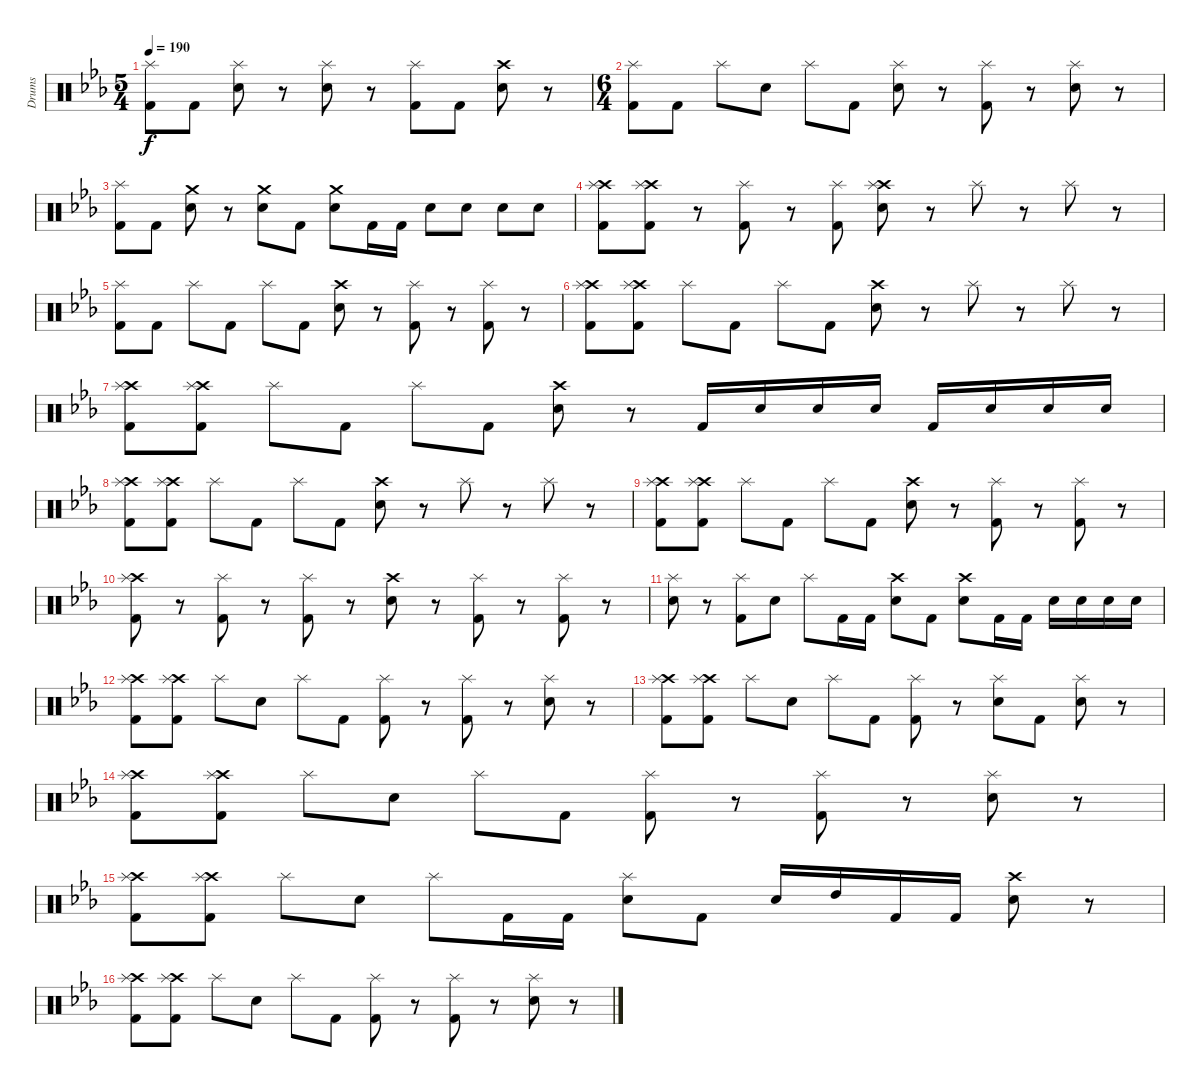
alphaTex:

\track ("Drums" "Drums") {instrument percussion}
\staff {score}
\articulation defaults
\ts (5 4)
\tempo 190
\clef neutral
\ks eb
("Kick (hit) 2" "Splash (hit)").8{dy f} "Kick (hit) 2".8 ("Electric Snare (hit)" "Splash (hit)").8 r.8 ("Electric Snare (hit)" "Splash (hit)").8 r.8 ("Kick (hit) 2" "Splash (hit)").8 "Kick (hit) 2".8 ("Electric Snare (hit)" "Crash high (hit)").8 r.8 |
\ts (6 4)
("Kick (hit) 2" "Splash (hit)").8 "Kick (hit) 2".8 "Splash (hit)".8 "Electric Snare (hit)".8 "Splash (hit)".8 "Kick (hit) 2".8 ("Electric Snare (hit)" "Splash (hit)").8 r.8 ("Kick (hit) 2" "Splash (hit)").8 r.8 ("Electric Snare (hit)" "Splash (hit)").8 r.8 |
("Kick (hit) 2" "Splash (hit)").8 "Kick (hit) 2".8 ("Electric Snare (hit)" "Crash medium (hit)").8 r.8 ("Electric Snare (hit)" "Crash medium (hit)").8 "Kick (hit) 2".8 ("Electric Snare (hit)" "Crash medium (hit)").8 "Kick (hit) 2".16 "Kick (hit) 2".16 "Electric Snare (hit)".8 "Electric Snare (hit)".8 "Electric Snare (hit)".8 "Electric Snare (hit)".8 |
("Kick (hit) 2" "Crash high (hit)" "Splash (hit)").8 ("Kick (hit) 2" "Crash high (hit)" "Splash (hit)").8 r.8 ("Kick (hit) 2" "Splash (hit)").8 r.8 ("Kick (hit) 2" "Splash (hit)").8 ("Electric Snare (hit)" "Crash high (hit)" "Splash (hit)").8 r.8 "Splash (hit)".8 r.8 "Splash (hit)".8 r.8 |
("Kick (hit) 2" "Splash (hit)").8 "Kick (hit) 2".8 "Splash (hit)".8 "Kick (hit) 2".8 "Splash (hit)".8 "Kick (hit) 2".8 ("Electric Snare (hit)" "Crash high (hit)").8 r.8 ("Kick (hit) 2" "Splash (hit)").8 r.8 ("Kick (hit) 2" "Splash (hit)").8 r.8 |
("Kick (hit) 2" "Crash high (hit)" "Splash (hit)").8 ("Kick (hit) 2" "Crash high (hit)" "Splash (hit)").8 "Splash (hit)".8 "Kick (hit) 2".8 "Splash (hit)".8 "Kick (hit) 2".8 ("Electric Snare (hit)" "Crash high (hit)").8 r.8 "Splash (hit)".8 r.8 "Splash (hit)".8 r.8 |
("Kick (hit) 2" "Crash high (hit)" "Splash (hit)").8 ("Kick (hit) 2" "Crash high (hit)" "Splash (hit)").8 "Splash (hit)".8 "Kick (hit) 2".8 "Splash (hit)".8 "Kick (hit) 2".8 ("Electric Snare (hit)" "Crash high (hit)").8 r.8 "Kick (hit) 2".16 "Electric Snare (hit)".16 "Electric Snare (hit)".16 "Electric Snare (hit)".16 "Kick (hit) 2".16 "Electric Snare (hit)".16 "Electric Snare (hit)".16 "Electric Snare (hit)".16 |
("Kick (hit) 2" "Crash high (hit)" "Splash (hit)").8 ("Kick (hit) 2" "Crash high (hit)" "Splash (hit)").8 "Splash (hit)".8 "Kick (hit) 2".8 "Splash (hit)".8 "Kick (hit) 2".8 ("Electric Snare (hit)" "Crash high (hit)").8 r.8 "Splash (hit)".8 r.8 "Splash (hit)".8 r.8 |
("Kick (hit) 2" "Crash high (hit)" "Splash (hit)").8 ("Kick (hit) 2" "Crash high (hit)" "Splash (hit)").8 "Splash (hit)".8 "Kick (hit) 2".8 "Splash (hit)".8 "Kick (hit) 2".8 ("Electric Snare (hit)" "Crash high (hit)").8 r.8 ("Kick (hit) 2" "Splash (hit)").8 r.8 ("Kick (hit) 2" "Splash (hit)").8 r.8 |
("Kick (hit) 2" "Crash high (hit)" "Splash (hit)").8 r.8 ("Kick (hit) 2" "Splash (hit)").8 r.8 ("Kick (hit) 2" "Splash (hit)").8 r.8 ("Electric Snare (hit)" "Crash high (hit)").8 r.8 ("Kick (hit) 2" "Splash (hit)").8 r.8 ("Kick (hit) 2" "Splash (hit)").8 r.8 |
("Electric Snare (hit)" "Splash (hit)").8 r.8 ("Kick (hit) 2" "Splash (hit)").8 "Electric Snare (hit)".8 "Splash (hit)".8 "Kick (hit) 2".16 "Kick (hit) 2".16 ("Electric Snare (hit)" "Crash high (hit)").8 "Kick (hit) 2".8 ("Electric Snare (hit)" "Crash high (hit)").8 "Kick (hit) 2".16 "Kick (hit) 2".16 "Electric Snare (hit)".16 "Electric Snare (hit)".16 "Electric Snare (hit)".16 "Electric Snare (hit)".16 |
("Kick (hit) 2" "Crash high (hit)" "Splash (hit)").8 ("Kick (hit) 2" "Crash high (hit)" "Splash (hit)").8 "Splash (hit)".8 "Electric Snare (hit)".8 "Splash (hit)".8 "Kick (hit) 2".8 ("Kick (hit) 2" "Splash (hit)").8 r.8 ("Kick (hit) 2" "Splash (hit)").8 r.8 ("Electric Snare (hit)" "Splash (hit)").8 r.8 |
("Kick (hit) 2" "Crash high (hit)" "Splash (hit)").8 ("Kick (hit) 2" "Crash high (hit)" "Splash (hit)").8 "Splash (hit)".8 "Electric Snare (hit)".8 "Splash (hit)".8 "Kick (hit) 2".8 ("Kick (hit) 2" "Splash (hit)").8 r.8 ("Electric Snare (hit)" "Splash (hit)").8 "Kick (hit) 2".8 ("Electric Snare (hit)" "Splash (hit)").8 r.8 |
("Kick (hit) 2" "Crash high (hit)" "Splash (hit)").8 ("Kick (hit) 2" "Crash high (hit)" "Splash (hit)").8 "Splash (hit)".8 "Electric Snare (hit)".8 "Splash (hit)".8 "Kick (hit) 2".8 ("Kick (hit) 2" "Splash (hit)").8 r.8 ("Kick (hit) 2" "Splash (hit)").8 r.8 ("Electric Snare (hit)" "Splash (hit)").8 r.8 |
("Kick (hit) 2" "Crash high (hit)" "Splash (hit)").8 ("Kick (hit) 2" "Crash high (hit)" "Splash (hit)").8 "Splash (hit)".8 "Electric Snare (hit)".8 "Splash (hit)".8 "Kick (hit) 2".16 "Kick (hit) 2".16 ("Electric Snare (hit)" "Splash (hit)").8 "Kick (hit) 2".8 "Electric Snare (hit)".16 "High Tom (hit)".16 "Kick (hit) 2".16 "Kick (hit) 2".16 ("Electric Snare (hit)" "Crash high (hit)").8 r.8 |
("Kick (hit) 2" "Crash high (hit)" "Splash (hit)").8 ("Kick (hit) 2" "Crash high (hit)" "Splash (hit)").8 "Splash (hit)".8 "Electric Snare (hit)".8 "Splash (hit)".8 "Kick (hit) 2".8 ("Kick (hit) 2" "Splash (hit)").8 r.8 ("Kick (hit) 2" "Splash (hit)").8 r.8 ("Electric Snare (hit)" "Splash (hit)").8 r.8
